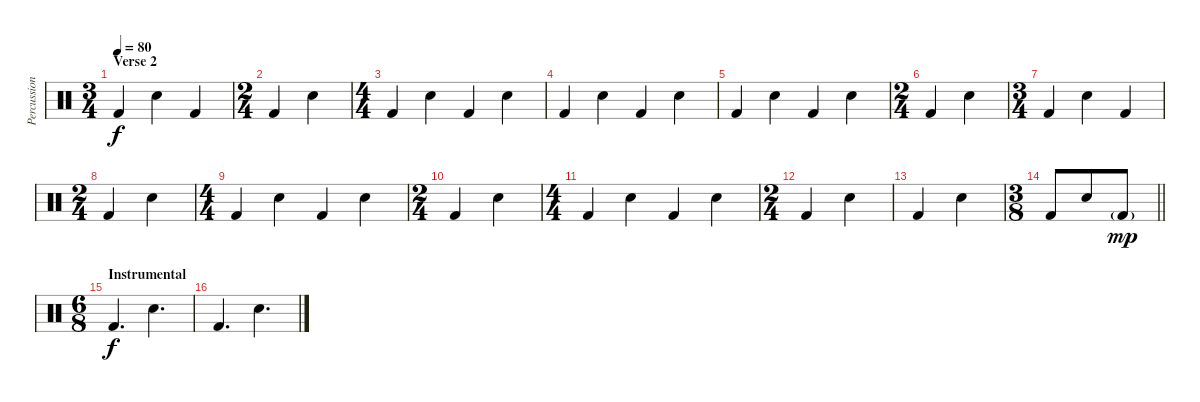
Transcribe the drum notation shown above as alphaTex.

\track ("Percussion" "Percussion") {instrument percussion}
\staff {score}
\articulation defaults
\ts (3 4)
\section ("" "Verse 2")
\tempo 80
\clef neutral
\ks c "Kick (hit) 2".4{dy f} "Snare (hit) 2".4 "Kick (hit) 2".4
|
\ts (2 4)
"Kick (hit) 2".4 "Snare (hit) 2".4 |
\ts (4 4)
"Kick (hit) 2".4 "Snare (hit) 2".4 "Kick (hit) 2".4 "Snare (hit) 2".4 |
"Kick (hit) 2".4 "Snare (hit) 2".4 "Kick (hit) 2".4 "Snare (hit) 2".4 |
"Kick (hit) 2".4 "Snare (hit) 2".4 "Kick (hit) 2".4 "Snare (hit) 2".4 |
\ts (2 4)
"Kick (hit) 2".4 "Snare (hit) 2".4 |
\ts (3 4)
"Kick (hit) 2".4 "Snare (hit) 2".4 "Kick (hit) 2".4 |
\ts (2 4)
"Kick (hit) 2".4 "Snare (hit) 2".4 |
\ts (4 4)
"Kick (hit) 2".4 "Snare (hit) 2".4 "Kick (hit) 2".4 "Snare (hit) 2".4 |
\ts (2 4)
"Kick (hit) 2".4 "Snare (hit) 2".4 |
\ts (4 4)
"Kick (hit) 2".4 "Snare (hit) 2".4 "Kick (hit) 2".4 "Snare (hit) 2".4 |
\ts (2 4)
"Kick (hit) 2".4 "Snare (hit) 2".4 |
"Kick (hit) 2".4 "Snare (hit) 2".4 |
\ts (3 8)
\barLineRight lightlight "Kick (hit) 2".8 "Snare (hit) 2".8 "Kick (hit) 2"{g}.8{dy mp}
|
\ts (6 8)
\section ("" "Instrumental")
"Kick (hit) 2".4{d dy f} "Snare (hit) 2".4{d} |
"Kick (hit) 2".4{d} "Snare (hit) 2".4{d}
